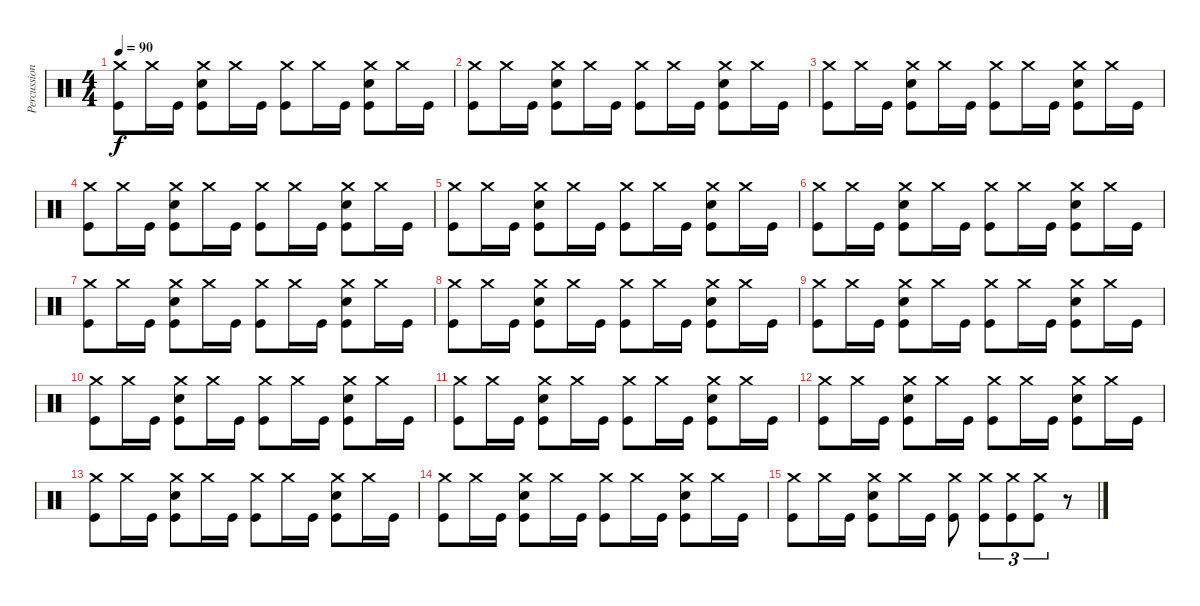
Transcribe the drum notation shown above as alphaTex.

\track ("Percussions" "Percussion") {instrument percussion}
\staff {score}
\articulation defaults
\ts (4 4)
\tempo 90
\clef neutral
\ks c
("Crash medium (hit)" "Kick (hit)").8{dy f} "Crash medium (hit)".16 "Kick (hit)".16 ("Crash medium (hit)" "Electric Snare (hit)" "Kick (hit)").8 "Crash medium (hit)".16 "Kick (hit)".16 ("Crash medium (hit)" "Kick (hit)").8 "Crash medium (hit)".16 "Kick (hit)".16 ("Crash medium (hit)" "Electric Snare (hit)" "Kick (hit)").8 "Crash medium (hit)".16 "Kick (hit)".16 |
("Crash medium (hit)" "Kick (hit)").8 "Crash medium (hit)".16 "Kick (hit)".16 ("Crash medium (hit)" "Electric Snare (hit)" "Kick (hit)").8 "Crash medium (hit)".16 "Kick (hit)".16 ("Crash medium (hit)" "Kick (hit)").8 "Crash medium (hit)".16 "Kick (hit)".16 ("Crash medium (hit)" "Electric Snare (hit)" "Kick (hit)").8 "Crash medium (hit)".16 "Kick (hit)".16 |
("Crash medium (hit)" "Kick (hit)").8 "Crash medium (hit)".16 "Kick (hit)".16 ("Crash medium (hit)" "Electric Snare (hit)" "Kick (hit)").8 "Crash medium (hit)".16 "Kick (hit)".16 ("Crash medium (hit)" "Kick (hit)").8 "Crash medium (hit)".16 "Kick (hit)".16 ("Crash medium (hit)" "Electric Snare (hit)" "Kick (hit)").8 "Crash medium (hit)".16 "Kick (hit)".16 |
("Crash medium (hit)" "Kick (hit)").8 "Crash medium (hit)".16 "Kick (hit)".16 ("Crash medium (hit)" "Electric Snare (hit)" "Kick (hit)").8 "Crash medium (hit)".16 "Kick (hit)".16 ("Crash medium (hit)" "Kick (hit)").8 "Crash medium (hit)".16 "Kick (hit)".16 ("Crash medium (hit)" "Electric Snare (hit)" "Kick (hit)").8 "Crash medium (hit)".16 "Kick (hit)".16 |
("Crash medium (hit)" "Kick (hit)").8 "Crash medium (hit)".16 "Kick (hit)".16 ("Crash medium (hit)" "Electric Snare (hit)" "Kick (hit)").8 "Crash medium (hit)".16 "Kick (hit)".16 ("Crash medium (hit)" "Kick (hit)").8 "Crash medium (hit)".16 "Kick (hit)".16 ("Crash medium (hit)" "Electric Snare (hit)" "Kick (hit)").8 "Crash medium (hit)".16 "Kick (hit)".16 |
("Crash medium (hit)" "Kick (hit)").8 "Crash medium (hit)".16 "Kick (hit)".16 ("Crash medium (hit)" "Electric Snare (hit)" "Kick (hit)").8 "Crash medium (hit)".16 "Kick (hit)".16 ("Crash medium (hit)" "Kick (hit)").8 "Crash medium (hit)".16 "Kick (hit)".16 ("Crash medium (hit)" "Electric Snare (hit)" "Kick (hit)").8 "Crash medium (hit)".16 "Kick (hit)".16 |
("Crash medium (hit)" "Kick (hit)").8 "Crash medium (hit)".16 "Kick (hit)".16 ("Crash medium (hit)" "Electric Snare (hit)" "Kick (hit)").8 "Crash medium (hit)".16 "Kick (hit)".16 ("Crash medium (hit)" "Kick (hit)").8 "Crash medium (hit)".16 "Kick (hit)".16 ("Crash medium (hit)" "Electric Snare (hit)" "Kick (hit)").8 "Crash medium (hit)".16 "Kick (hit)".16 |
("Crash medium (hit)" "Kick (hit)").8 "Crash medium (hit)".16 "Kick (hit)".16 ("Crash medium (hit)" "Electric Snare (hit)" "Kick (hit)").8 "Crash medium (hit)".16 "Kick (hit)".16 ("Crash medium (hit)" "Kick (hit)").8 "Crash medium (hit)".16 "Kick (hit)".16 ("Crash medium (hit)" "Electric Snare (hit)" "Kick (hit)").8 "Crash medium (hit)".16 "Kick (hit)".16 |
("Crash medium (hit)" "Kick (hit)").8 "Crash medium (hit)".16 "Kick (hit)".16 ("Crash medium (hit)" "Electric Snare (hit)" "Kick (hit)").8 "Crash medium (hit)".16 "Kick (hit)".16 ("Crash medium (hit)" "Kick (hit)").8 "Crash medium (hit)".16 "Kick (hit)".16 ("Crash medium (hit)" "Electric Snare (hit)" "Kick (hit)").8 "Crash medium (hit)".16 "Kick (hit)".16 |
("Crash medium (hit)" "Kick (hit)").8 "Crash medium (hit)".16 "Kick (hit)".16 ("Crash medium (hit)" "Electric Snare (hit)" "Kick (hit)").8 "Crash medium (hit)".16 "Kick (hit)".16 ("Crash medium (hit)" "Kick (hit)").8 "Crash medium (hit)".16 "Kick (hit)".16 ("Crash medium (hit)" "Electric Snare (hit)" "Kick (hit)").8 "Crash medium (hit)".16 "Kick (hit)".16 |
("Crash medium (hit)" "Kick (hit)").8 "Crash medium (hit)".16 "Kick (hit)".16 ("Crash medium (hit)" "Electric Snare (hit)" "Kick (hit)").8 "Crash medium (hit)".16 "Kick (hit)".16 ("Crash medium (hit)" "Kick (hit)").8 "Crash medium (hit)".16 "Kick (hit)".16 ("Crash medium (hit)" "Electric Snare (hit)" "Kick (hit)").8 "Crash medium (hit)".16 "Kick (hit)".16 |
("Crash medium (hit)" "Kick (hit)").8 "Crash medium (hit)".16 "Kick (hit)".16 ("Crash medium (hit)" "Electric Snare (hit)" "Kick (hit)").8 "Crash medium (hit)".16 "Kick (hit)".16 ("Crash medium (hit)" "Kick (hit)").8 "Crash medium (hit)".16 "Kick (hit)".16 ("Crash medium (hit)" "Electric Snare (hit)" "Kick (hit)").8 "Crash medium (hit)".16 "Kick (hit)".16 |
("Crash medium (hit)" "Kick (hit)").8 "Crash medium (hit)".16 "Kick (hit)".16 ("Crash medium (hit)" "Electric Snare (hit)" "Kick (hit)").8 "Crash medium (hit)".16 "Kick (hit)".16 ("Crash medium (hit)" "Kick (hit)").8 "Crash medium (hit)".16 "Kick (hit)".16 ("Crash medium (hit)" "Electric Snare (hit)" "Kick (hit)").8 "Crash medium (hit)".16 "Kick (hit)".16 |
("Crash medium (hit)" "Kick (hit)").8 "Crash medium (hit)".16 "Kick (hit)".16 ("Crash medium (hit)" "Electric Snare (hit)" "Kick (hit)").8 "Crash medium (hit)".16 "Kick (hit)".16 ("Crash medium (hit)" "Kick (hit)").8 "Crash medium (hit)".16 "Kick (hit)".16 ("Crash medium (hit)" "Electric Snare (hit)" "Kick (hit)").8 "Crash medium (hit)".16 "Kick (hit)".16 |
("Crash medium (hit)" "Kick (hit)").8 "Crash medium (hit)".16 "Kick (hit)".16 ("Crash medium (hit)" "Electric Snare (hit)" "Kick (hit)").8 "Crash medium (hit)".16 "Kick (hit)".16 ("Crash medium (hit)" "Kick (hit)").8 ("Crash medium (hit)" "Kick (hit)").8{tu (3 2)} ("Crash medium (hit)" "Kick (hit)").8{tu (3 2)} ("Crash medium (hit)" "Kick (hit)").8{tu (3 2)} r.8
